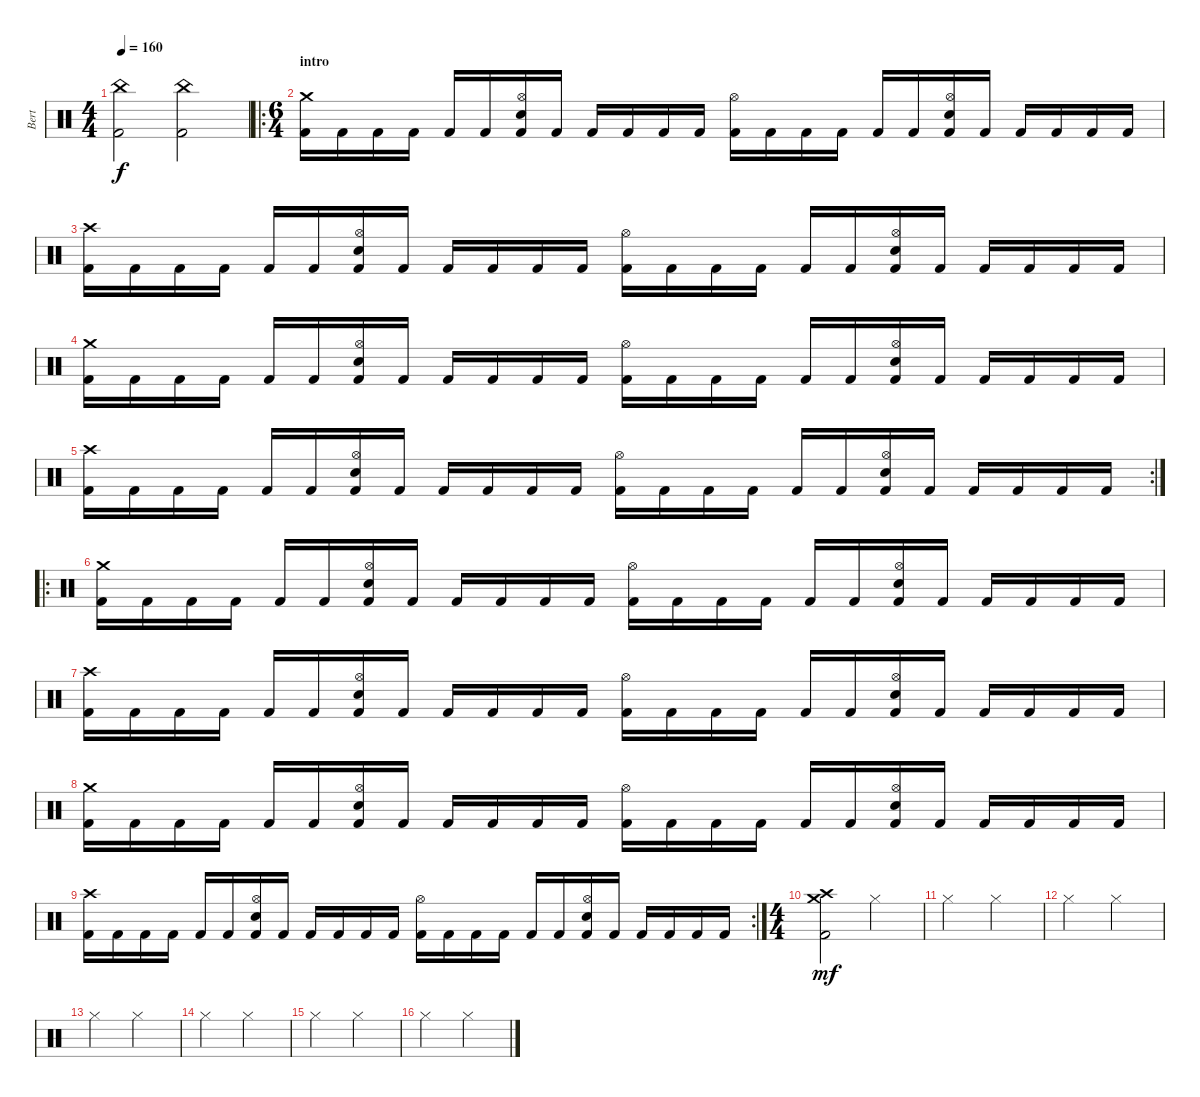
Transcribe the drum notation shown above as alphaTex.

\track ("Bert" "Bert") {instrument percussion}
\staff {score}
\articulation defaults
\ts (4 4)
\tempo 160
\clef neutral
\ks c
("China (hit)" "Kick (hit) 2").2{dy f} ("China (hit)" "Kick (hit) 2").2 |
\ro
\ts (6 4)
\section ("" "intro")
("Crash medium (hit)" "Kick (hit) 2").16 "Kick (hit) 2".16 "Kick (hit) 2".16 "Kick (hit) 2".16 "Kick (hit) 2".16 "Kick (hit) 2".16 ("Hi-Hat (open)" "Snare (hit) 2" "Kick (hit) 2").16 "Kick (hit) 2".16 "Kick (hit) 2".16 "Kick (hit) 2".16 "Kick (hit) 2".16 "Kick (hit) 2".16 ("Hi-Hat (open)" "Kick (hit) 2").16 "Kick (hit) 2".16 "Kick (hit) 2".16 "Kick (hit) 2".16 "Kick (hit) 2".16 "Kick (hit) 2".16 ("Hi-Hat (open)" "Snare (hit) 2" "Kick (hit) 2").16 "Kick (hit) 2".16 "Kick (hit) 2".16 "Kick (hit) 2".16 "Kick (hit) 2".16 "Kick (hit) 2".16 |
("Crash high (hit)" "Kick (hit) 2").16 "Kick (hit) 2".16 "Kick (hit) 2".16 "Kick (hit) 2".16 "Kick (hit) 2".16 "Kick (hit) 2".16 ("Hi-Hat (open)" "Snare (hit) 2" "Kick (hit) 2").16 "Kick (hit) 2".16 "Kick (hit) 2".16 "Kick (hit) 2".16 "Kick (hit) 2".16 "Kick (hit) 2".16 ("Hi-Hat (open)" "Kick (hit) 2").16 "Kick (hit) 2".16 "Kick (hit) 2".16 "Kick (hit) 2".16 "Kick (hit) 2".16 "Kick (hit) 2".16 ("Hi-Hat (open)" "Snare (hit) 2" "Kick (hit) 2").16 "Kick (hit) 2".16 "Kick (hit) 2".16 "Kick (hit) 2".16 "Kick (hit) 2".16 "Kick (hit) 2".16 |
("Crash medium (hit)" "Kick (hit) 2").16 "Kick (hit) 2".16 "Kick (hit) 2".16 "Kick (hit) 2".16 "Kick (hit) 2".16 "Kick (hit) 2".16 ("Hi-Hat (open)" "Snare (hit) 2" "Kick (hit) 2").16 "Kick (hit) 2".16 "Kick (hit) 2".16 "Kick (hit) 2".16 "Kick (hit) 2".16 "Kick (hit) 2".16 ("Hi-Hat (open)" "Kick (hit) 2").16 "Kick (hit) 2".16 "Kick (hit) 2".16 "Kick (hit) 2".16 "Kick (hit) 2".16 "Kick (hit) 2".16 ("Hi-Hat (open)" "Snare (hit) 2" "Kick (hit) 2").16 "Kick (hit) 2".16 "Kick (hit) 2".16 "Kick (hit) 2".16 "Kick (hit) 2".16 "Kick (hit) 2".16 |
\rc 2
("Crash high (hit)" "Kick (hit) 2").16 "Kick (hit) 2".16 "Kick (hit) 2".16 "Kick (hit) 2".16 "Kick (hit) 2".16 "Kick (hit) 2".16 ("Hi-Hat (open)" "Snare (hit) 2" "Kick (hit) 2").16 "Kick (hit) 2".16 "Kick (hit) 2".16 "Kick (hit) 2".16 "Kick (hit) 2".16 "Kick (hit) 2".16 ("Hi-Hat (open)" "Kick (hit) 2").16 "Kick (hit) 2".16 "Kick (hit) 2".16 "Kick (hit) 2".16 "Kick (hit) 2".16 "Kick (hit) 2".16 ("Hi-Hat (open)" "Snare (hit) 2" "Kick (hit) 2").16 "Kick (hit) 2".16 "Kick (hit) 2".16 "Kick (hit) 2".16 "Kick (hit) 2".16 "Kick (hit) 2".16 |
\ro
("Crash medium (hit)" "Kick (hit) 2").16 "Kick (hit) 2".16 "Kick (hit) 2".16 "Kick (hit) 2".16 "Kick (hit) 2".16 "Kick (hit) 2".16 ("Hi-Hat (open)" "Snare (hit) 2" "Kick (hit) 2").16 "Kick (hit) 2".16 "Kick (hit) 2".16 "Kick (hit) 2".16 "Kick (hit) 2".16 "Kick (hit) 2".16 ("Hi-Hat (open)" "Kick (hit) 2").16 "Kick (hit) 2".16 "Kick (hit) 2".16 "Kick (hit) 2".16 "Kick (hit) 2".16 "Kick (hit) 2".16 ("Hi-Hat (open)" "Snare (hit) 2" "Kick (hit) 2").16 "Kick (hit) 2".16 "Kick (hit) 2".16 "Kick (hit) 2".16 "Kick (hit) 2".16 "Kick (hit) 2".16 |
("Crash high (hit)" "Kick (hit) 2").16 "Kick (hit) 2".16 "Kick (hit) 2".16 "Kick (hit) 2".16 "Kick (hit) 2".16 "Kick (hit) 2".16 ("Hi-Hat (open)" "Snare (hit) 2" "Kick (hit) 2").16 "Kick (hit) 2".16 "Kick (hit) 2".16 "Kick (hit) 2".16 "Kick (hit) 2".16 "Kick (hit) 2".16 ("Hi-Hat (open)" "Kick (hit) 2").16 "Kick (hit) 2".16 "Kick (hit) 2".16 "Kick (hit) 2".16 "Kick (hit) 2".16 "Kick (hit) 2".16 ("Hi-Hat (open)" "Snare (hit) 2" "Kick (hit) 2").16 "Kick (hit) 2".16 "Kick (hit) 2".16 "Kick (hit) 2".16 "Kick (hit) 2".16 "Kick (hit) 2".16 |
("Crash medium (hit)" "Kick (hit) 2").16 "Kick (hit) 2".16 "Kick (hit) 2".16 "Kick (hit) 2".16 "Kick (hit) 2".16 "Kick (hit) 2".16 ("Hi-Hat (open)" "Snare (hit) 2" "Kick (hit) 2").16 "Kick (hit) 2".16 "Kick (hit) 2".16 "Kick (hit) 2".16 "Kick (hit) 2".16 "Kick (hit) 2".16 ("Hi-Hat (open)" "Kick (hit) 2").16 "Kick (hit) 2".16 "Kick (hit) 2".16 "Kick (hit) 2".16 "Kick (hit) 2".16 "Kick (hit) 2".16 ("Hi-Hat (open)" "Snare (hit) 2" "Kick (hit) 2").16 "Kick (hit) 2".16 "Kick (hit) 2".16 "Kick (hit) 2".16 "Kick (hit) 2".16 "Kick (hit) 2".16 |
\rc 2
("Crash high (hit)" "Kick (hit) 2").16 "Kick (hit) 2".16 "Kick (hit) 2".16 "Kick (hit) 2".16 "Kick (hit) 2".16 "Kick (hit) 2".16 ("Hi-Hat (open)" "Snare (hit) 2" "Kick (hit) 2").16 "Kick (hit) 2".16 "Kick (hit) 2".16 "Kick (hit) 2".16 "Kick (hit) 2".16 "Kick (hit) 2".16 ("Hi-Hat (open)" "Kick (hit) 2").16 "Kick (hit) 2".16 "Kick (hit) 2".16 "Kick (hit) 2".16 "Kick (hit) 2".16 "Kick (hit) 2".16 ("Hi-Hat (open)" "Snare (hit) 2" "Kick (hit) 2").16 "Kick (hit) 2".16 "Kick (hit) 2".16 "Kick (hit) 2".16 "Kick (hit) 2".16 "Kick (hit) 2".16 |
\ts (4 4)
("Crash medium (hit)" "Crash high (hit)" "Kick (hit) 2").2{dy mf} "Hi-Hat (closed)".2 |
"Hi-Hat (closed)".2 "Hi-Hat (closed)".2 |
"Hi-Hat (closed)".2 "Hi-Hat (closed)".2 |
"Hi-Hat (closed)".2 "Hi-Hat (closed)".2 |
"Hi-Hat (closed)".2 "Hi-Hat (closed)".2 |
"Hi-Hat (closed)".2 "Hi-Hat (closed)".2 |
"Hi-Hat (closed)".2 "Hi-Hat (closed)".2
